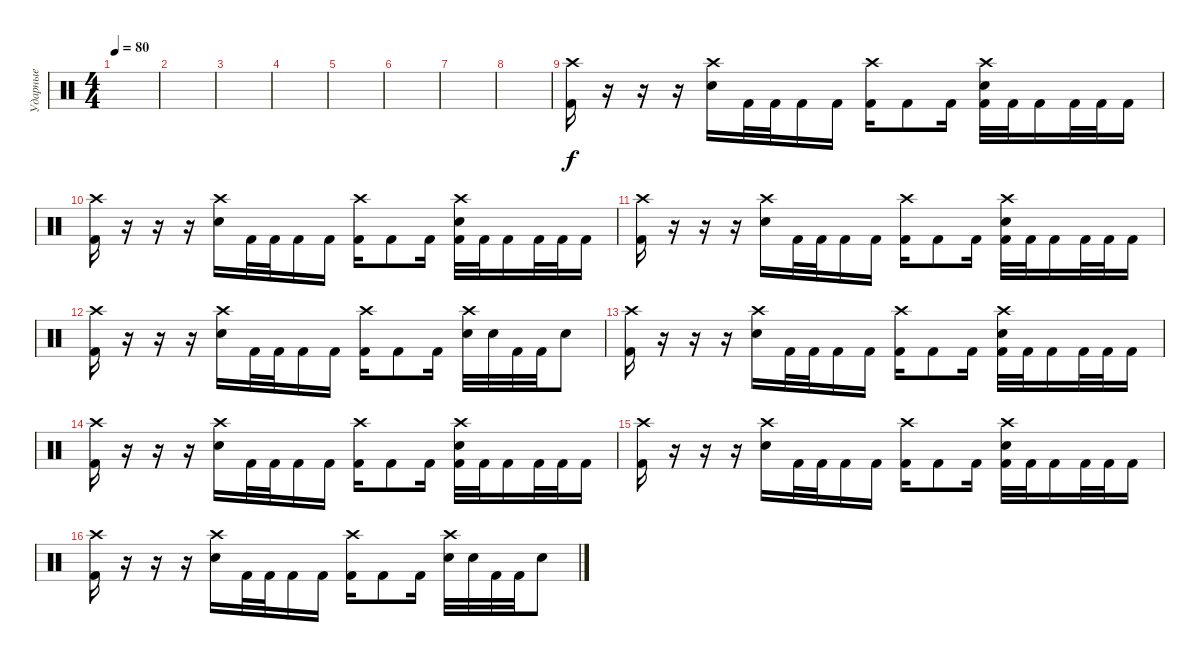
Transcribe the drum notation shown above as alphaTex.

\track ("Ударные" "Ударные") {instrument percussion}
\staff {score}
\articulation defaults
\ts (4 4)
\tempo 80
\clef neutral
\ks c
|
|
|
|
|
|
|
|
("Crash high (hit)" "Kick (hit) 2").16 r.16 r.16 r.16 ("Crash high (hit)" "Electric Snare (hit)").16 "Kick (hit) 2".32 "Kick (hit) 2".32 "Kick (hit) 2".16 "Kick (hit) 2".16 ("Crash high (hit)" "Kick (hit) 2").16 "Kick (hit) 2".8 "Kick (hit) 2".16 ("Crash high (hit)" "Electric Snare (hit)" "Kick (hit) 2").32 "Kick (hit) 2".32 "Kick (hit) 2".16 "Kick (hit) 2".32 "Kick (hit) 2".32 "Kick (hit) 2".16 |
("Crash high (hit)" "Kick (hit) 2").16 r.16 r.16 r.16 ("Crash high (hit)" "Electric Snare (hit)").16 "Kick (hit) 2".32 "Kick (hit) 2".32 "Kick (hit) 2".16 "Kick (hit) 2".16 ("Crash high (hit)" "Kick (hit) 2").16 "Kick (hit) 2".8 "Kick (hit) 2".16 ("Crash high (hit)" "Electric Snare (hit)" "Kick (hit) 2").32 "Kick (hit) 2".32 "Kick (hit) 2".16 "Kick (hit) 2".32 "Kick (hit) 2".32 "Kick (hit) 2".16 |
("Crash high (hit)" "Kick (hit) 2").16 r.16 r.16 r.16 ("Crash high (hit)" "Electric Snare (hit)").16 "Kick (hit) 2".32 "Kick (hit) 2".32 "Kick (hit) 2".16 "Kick (hit) 2".16 ("Crash high (hit)" "Kick (hit) 2").16 "Kick (hit) 2".8 "Kick (hit) 2".16 ("Crash high (hit)" "Electric Snare (hit)" "Kick (hit) 2").32 "Kick (hit) 2".32 "Kick (hit) 2".16 "Kick (hit) 2".32 "Kick (hit) 2".32 "Kick (hit) 2".16 |
("Crash high (hit)" "Kick (hit) 2").16 r.16 r.16 r.16 ("Crash high (hit)" "Electric Snare (hit)").16 "Kick (hit) 2".32 "Kick (hit) 2".32 "Kick (hit) 2".16 "Kick (hit) 2".16 ("Crash high (hit)" "Kick (hit) 2").16 "Kick (hit) 2".8 "Kick (hit) 2".16 ("Crash high (hit)" "Electric Snare (hit)").32 "Electric Snare (hit)".32 "Kick (hit) 2".32 "Kick (hit) 2".32 "Electric Snare (hit)".8 |
("Crash high (hit)" "Kick (hit) 2").16 r.16 r.16 r.16 ("Crash high (hit)" "Electric Snare (hit)").16 "Kick (hit) 2".32 "Kick (hit) 2".32 "Kick (hit) 2".16 "Kick (hit) 2".16 ("Crash high (hit)" "Kick (hit) 2").16 "Kick (hit) 2".8 "Kick (hit) 2".16 ("Crash high (hit)" "Electric Snare (hit)" "Kick (hit) 2").32 "Kick (hit) 2".32 "Kick (hit) 2".16 "Kick (hit) 2".32 "Kick (hit) 2".32 "Kick (hit) 2".16 |
("Crash high (hit)" "Kick (hit) 2").16 r.16 r.16 r.16 ("Crash high (hit)" "Electric Snare (hit)").16 "Kick (hit) 2".32 "Kick (hit) 2".32 "Kick (hit) 2".16 "Kick (hit) 2".16 ("Crash high (hit)" "Kick (hit) 2").16 "Kick (hit) 2".8 "Kick (hit) 2".16 ("Crash high (hit)" "Electric Snare (hit)" "Kick (hit) 2").32 "Kick (hit) 2".32 "Kick (hit) 2".16 "Kick (hit) 2".32 "Kick (hit) 2".32 "Kick (hit) 2".16 |
("Crash high (hit)" "Kick (hit) 2").16 r.16 r.16 r.16 ("Crash high (hit)" "Electric Snare (hit)").16 "Kick (hit) 2".32 "Kick (hit) 2".32 "Kick (hit) 2".16 "Kick (hit) 2".16 ("Crash high (hit)" "Kick (hit) 2").16 "Kick (hit) 2".8 "Kick (hit) 2".16 ("Crash high (hit)" "Electric Snare (hit)" "Kick (hit) 2").32 "Kick (hit) 2".32 "Kick (hit) 2".16 "Kick (hit) 2".32 "Kick (hit) 2".32 "Kick (hit) 2".16 |
("Crash high (hit)" "Kick (hit) 2").16 r.16 r.16 r.16 ("Crash high (hit)" "Electric Snare (hit)").16 "Kick (hit) 2".32 "Kick (hit) 2".32 "Kick (hit) 2".16 "Kick (hit) 2".16 ("Crash high (hit)" "Kick (hit) 2").16 "Kick (hit) 2".8 "Kick (hit) 2".16 ("Crash high (hit)" "Electric Snare (hit)").32 "Electric Snare (hit)".32 "Kick (hit) 2".32 "Kick (hit) 2".32 "Electric Snare (hit)".8
